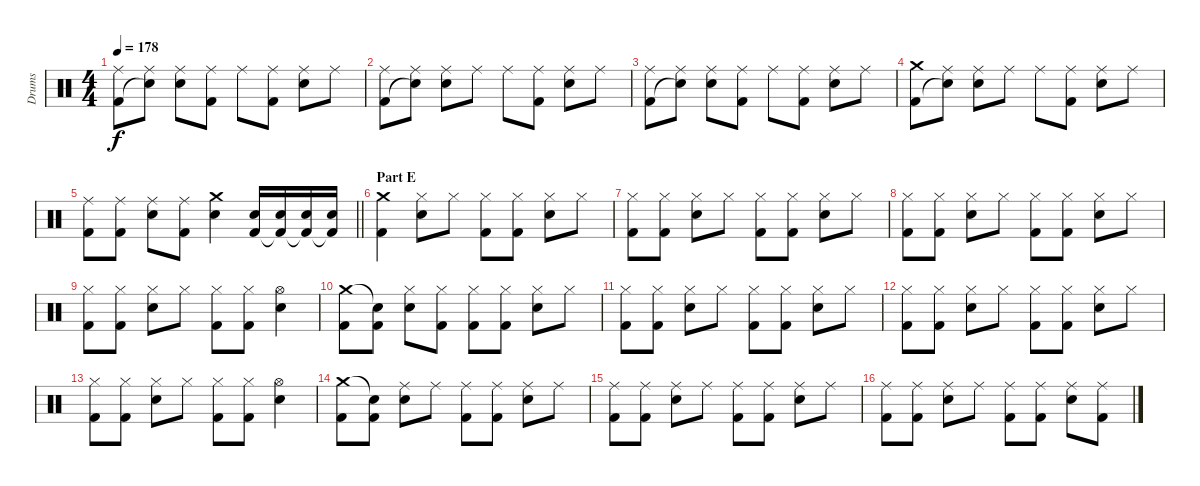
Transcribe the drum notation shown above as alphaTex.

\track ("Drums" "Drums") {instrument percussion}
\staff {score}
\articulation defaults
\ts (4 4)
\tempo 178
\clef neutral
\ks c
("Ride (middle)" "Kick (hit) 2").8{dy f} ("Ride (middle)" "Snare (hit)"{t}).8 ("Ride (middle)" "Electric Snare (hit)").8 ("Ride (middle)" "Kick (hit) 2").8 "Ride (middle)".8 ("Ride (middle)" "Kick (hit) 2").8 ("Ride (middle)" "Electric Snare (hit)").8 "Ride (middle)".8 |
("Ride (middle)" "Kick (hit) 2").8 ("Ride (middle)" "Snare (hit)"{t}).8 ("Ride (middle)" "Electric Snare (hit)").8 "Ride (middle)".8 "Ride (middle)".8 ("Ride (middle)" "Kick (hit) 2").8 ("Ride (middle)" "Electric Snare (hit)").8 "Ride (middle)".8 |
("Ride (middle)" "Kick (hit) 2").8 ("Ride (middle)" "Snare (hit)"{t}).8 ("Ride (middle)" "Electric Snare (hit)").8 ("Ride (middle)" "Kick (hit) 2").8 "Ride (middle)".8 ("Ride (middle)" "Kick (hit) 2").8 ("Ride (middle)" "Electric Snare (hit)").8 "Ride (middle)".8 |
("Crash medium (hit)" "Kick (hit) 2").8 ("Ride (middle)" "Snare (hit)"{t}).8 ("Ride (middle)" "Electric Snare (hit)").8 "Ride (middle)".8 "Ride (middle)".8 ("Ride (middle)" "Kick (hit) 2").8 ("Ride (middle)" "Electric Snare (hit)").8 "Ride (middle)".8 |
\barLineRight lightlight
("Ride (middle)" "Kick (hit) 2").8 ("Ride (middle)" "Kick (hit) 2").8 ("Ride (middle)" "Electric Snare (hit)").8 ("Ride (middle)" "Kick (hit) 2").8 ("Crash medium (hit)" "Electric Snare (hit)").4 ("Electric Snare (hit)" "Kick (hit) 2").16 ("Electric Snare (hit)" "Kick (hit) 2"{t}).16 ("Electric Snare (hit)" "Kick (hit) 2"{t}).16 ("Electric Snare (hit)" "Kick (hit) 2"{t}).16 |
\section ("" "Part E")
("Crash medium (hit)" "Kick (hit) 2").4 ("Hi-Hat (closed)" "Electric Snare (hit)").8 "Hi-Hat (closed)".8 ("Hi-Hat (closed)" "Kick (hit) 2").8 ("Hi-Hat (closed)" "Kick (hit) 2").8 ("Hi-Hat (closed)" "Electric Snare (hit)").8 "Hi-Hat (closed)".8 |
("Hi-Hat (closed)" "Kick (hit) 2").8 ("Hi-Hat (closed)" "Kick (hit) 2").8 ("Hi-Hat (closed)" "Electric Snare (hit)").8 "Hi-Hat (closed)".8 ("Hi-Hat (closed)" "Kick (hit) 2").8 ("Hi-Hat (closed)" "Kick (hit) 2").8 ("Hi-Hat (closed)" "Electric Snare (hit)").8 "Hi-Hat (closed)".8 |
("Hi-Hat (closed)" "Kick (hit) 2").8 ("Hi-Hat (closed)" "Kick (hit) 2").8 ("Hi-Hat (closed)" "Electric Snare (hit)").8 "Hi-Hat (closed)".8 ("Hi-Hat (closed)" "Kick (hit) 2").8 ("Hi-Hat (closed)" "Kick (hit) 2").8 ("Hi-Hat (closed)" "Electric Snare (hit)").8 "Hi-Hat (closed)".8 |
("Hi-Hat (closed)" "Kick (hit) 2").8 ("Hi-Hat (closed)" "Kick (hit) 2").8 ("Hi-Hat (closed)" "Electric Snare (hit)").8 "Hi-Hat (closed)".8 ("Hi-Hat (closed)" "Kick (hit) 2").8 ("Hi-Hat (closed)" "Kick (hit) 2").8 ("Hi-Hat (open)" "Electric Snare (hit)").4 |
("Crash medium (hit)" "Kick (hit) 2").8 ("Snare (hit)"{t} "Kick (hit) 2").8 ("Hi-Hat (closed)" "Electric Snare (hit)").8 ("Hi-Hat (closed)" "Kick (hit) 2").8 ("Hi-Hat (closed)" "Kick (hit) 2").8 ("Hi-Hat (closed)" "Kick (hit) 2").8 ("Hi-Hat (closed)" "Electric Snare (hit)").8 "Hi-Hat (closed)".8 |
("Hi-Hat (closed)" "Kick (hit) 2").8 ("Hi-Hat (closed)" "Kick (hit) 2").8 ("Hi-Hat (closed)" "Electric Snare (hit)").8 "Hi-Hat (closed)".8 ("Hi-Hat (closed)" "Kick (hit) 2").8 ("Hi-Hat (closed)" "Kick (hit) 2").8 ("Hi-Hat (closed)" "Electric Snare (hit)").8 "Hi-Hat (closed)".8 |
("Hi-Hat (closed)" "Kick (hit) 2").8 ("Hi-Hat (closed)" "Kick (hit) 2").8 ("Hi-Hat (closed)" "Electric Snare (hit)").8 "Hi-Hat (closed)".8 ("Hi-Hat (closed)" "Kick (hit) 2").8 ("Hi-Hat (closed)" "Kick (hit) 2").8 ("Hi-Hat (closed)" "Electric Snare (hit)").8 "Hi-Hat (closed)".8 |
("Hi-Hat (closed)" "Kick (hit) 2").8 ("Hi-Hat (closed)" "Kick (hit) 2").8 ("Hi-Hat (closed)" "Electric Snare (hit)").8 "Hi-Hat (closed)".8 ("Hi-Hat (closed)" "Kick (hit) 2").8 ("Hi-Hat (closed)" "Kick (hit) 2").8 ("Hi-Hat (open)" "Electric Snare (hit)").4 |
("Crash medium (hit)" "Kick (hit) 2").8 ("Snare (hit)"{t} "Kick (hit) 2").8 ("Ride (middle)" "Electric Snare (hit)").8 "Ride (middle)".8 ("Ride (middle)" "Kick (hit) 2").8 ("Ride (middle)" "Kick (hit) 2").8 ("Ride (middle)" "Electric Snare (hit)").8 "Ride (middle)".8 |
("Ride (middle)" "Kick (hit) 2").8 ("Ride (middle)" "Kick (hit) 2").8 ("Ride (middle)" "Electric Snare (hit)").8 "Ride (middle)".8 ("Ride (middle)" "Kick (hit) 2").8 ("Ride (middle)" "Kick (hit) 2").8 ("Ride (middle)" "Electric Snare (hit)").8 "Ride (middle)".8 |
("Ride (middle)" "Kick (hit) 2").8 ("Ride (middle)" "Kick (hit) 2").8 ("Ride (middle)" "Electric Snare (hit)").8 "Ride (middle)".8 ("Ride (middle)" "Kick (hit) 2").8 ("Ride (middle)" "Kick (hit) 2").8 ("Ride (middle)" "Electric Snare (hit)").8 ("Ride (middle)" "Kick (hit) 2").8
